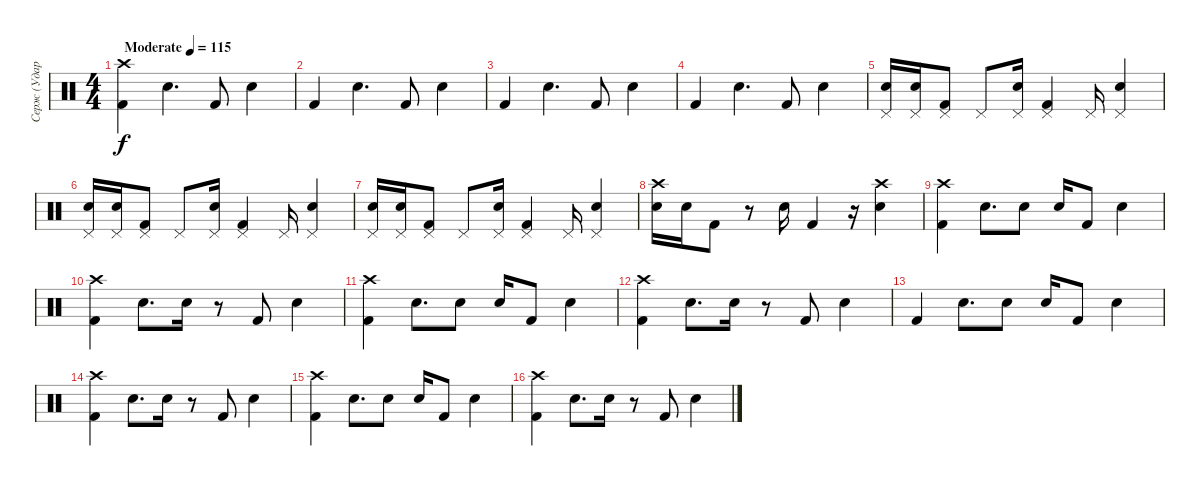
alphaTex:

\track ("Серж (Ударные)" "Серж (Удар") {instrument percussion}
\staff {score}
\articulation defaults
\ts (4 4)
\tempo (115 "Moderate")
\clef neutral
\ks c
("Kick (hit) 2" "Crash high (hit)").4{dy f} "Snare (hit) 2".4{d} "Kick (hit) 2".8 "Snare (hit) 2".4 |
"Kick (hit) 2".4 "Snare (hit) 2".4{d} "Kick (hit) 2".8 "Snare (hit) 2".4 |
"Kick (hit) 2".4 "Snare (hit) 2".4{d} "Kick (hit) 2".8 "Snare (hit) 2".4 |
"Kick (hit) 2".4 "Snare (hit) 2".4{d} "Kick (hit) 2".8 "Snare (hit) 2".4 |
("Snare (hit) 2" "Pedal Hi-Hat (hit)").16 ("Snare (hit) 2" "Pedal Hi-Hat (hit)").16 ("Kick (hit) 2" "Pedal Hi-Hat (hit)").8 "Pedal Hi-Hat (hit)".8 ("Snare (hit) 2" "Pedal Hi-Hat (hit)").16 ("Kick (hit) 2" "Pedal Hi-Hat (hit)").4 "Pedal Hi-Hat (hit)".16 ("Snare (hit) 2" "Pedal Hi-Hat (hit)").4 |
("Snare (hit) 2" "Pedal Hi-Hat (hit)").16 ("Snare (hit) 2" "Pedal Hi-Hat (hit)").16 ("Kick (hit) 2" "Pedal Hi-Hat (hit)").8 "Pedal Hi-Hat (hit)".8 ("Snare (hit) 2" "Pedal Hi-Hat (hit)").16 ("Kick (hit) 2" "Pedal Hi-Hat (hit)").4 "Pedal Hi-Hat (hit)".16 ("Snare (hit) 2" "Pedal Hi-Hat (hit)").4 |
("Snare (hit) 2" "Pedal Hi-Hat (hit)").16 ("Snare (hit) 2" "Pedal Hi-Hat (hit)").16 ("Kick (hit) 2" "Pedal Hi-Hat (hit)").8 "Pedal Hi-Hat (hit)".8 ("Snare (hit) 2" "Pedal Hi-Hat (hit)").16 ("Kick (hit) 2" "Pedal Hi-Hat (hit)").4 "Pedal Hi-Hat (hit)".16 ("Snare (hit) 2" "Pedal Hi-Hat (hit)").4 |
("Snare (hit) 2" "Crash high (hit)").16 "Snare (hit) 2".16 "Kick (hit) 2".8 r.8 "Snare (hit) 2".16 "Kick (hit) 2".4 r.16 ("Snare (hit) 2" "Crash high (hit)").4 |
("Kick (hit) 2" "Crash high (hit)").4 "Snare (hit) 2".8{d} "Snare (hit) 2".8 "Snare (hit) 2".16 "Kick (hit) 2".8 "Snare (hit) 2".4 |
("Kick (hit) 2" "Crash high (hit)").4 "Snare (hit) 2".8{d} "Snare (hit) 2".16 r.8 "Kick (hit) 2".8 "Snare (hit) 2".4 |
("Kick (hit) 2" "Crash high (hit)").4 "Snare (hit) 2".8{d} "Snare (hit) 2".8 "Snare (hit) 2".16 "Kick (hit) 2".8 "Snare (hit) 2".4 |
("Kick (hit) 2" "Crash high (hit)").4 "Snare (hit) 2".8{d} "Snare (hit) 2".16 r.8 "Kick (hit) 2".8 "Snare (hit) 2".4 |
"Kick (hit) 2".4 "Snare (hit) 2".8{d} "Snare (hit) 2".8 "Snare (hit) 2".16 "Kick (hit) 2".8 "Snare (hit) 2".4 |
("Kick (hit) 2" "Crash high (hit)").4 "Snare (hit) 2".8{d} "Snare (hit) 2".16 r.8 "Kick (hit) 2".8 "Snare (hit) 2".4 |
("Kick (hit) 2" "Crash high (hit)").4 "Snare (hit) 2".8{d} "Snare (hit) 2".8 "Snare (hit) 2".16 "Kick (hit) 2".8 "Snare (hit) 2".4 |
("Kick (hit) 2" "Crash high (hit)").4 "Snare (hit) 2".8{d} "Snare (hit) 2".16 r.8 "Kick (hit) 2".8 "Snare (hit) 2".4
